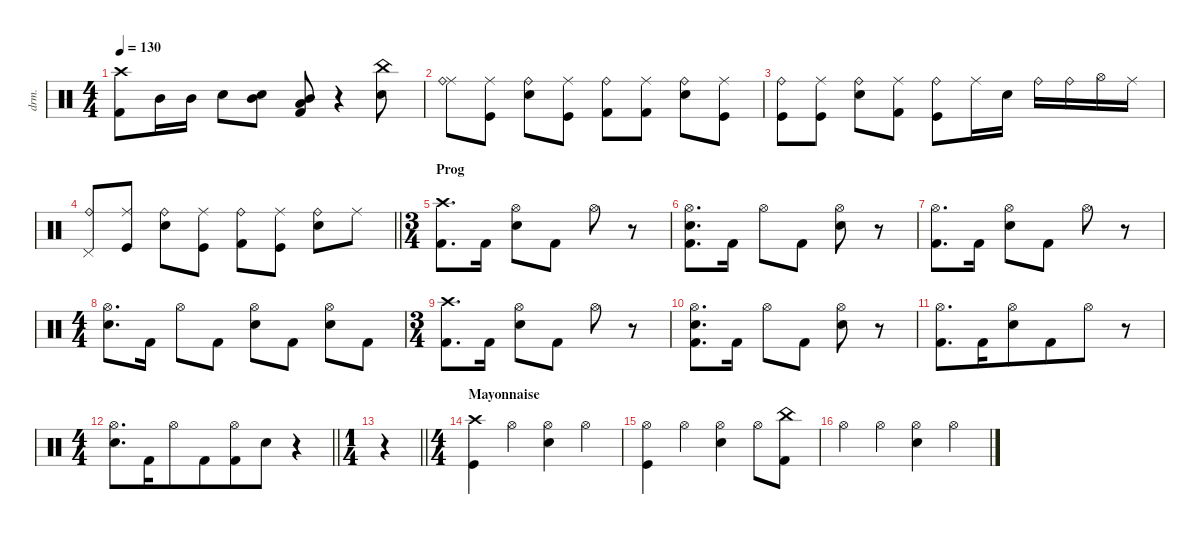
\defaultSystemsLayout 4
\hideDynamics
\bracketExtendMode nobrackets
\track ("Manouche" "drm.") {solo instrument percussion}
\staff {score}
\articulation defaults
\voice
\ts (4 4)
\tempo 130
\clef neutral
\ks c
("Crash high (hit)" "Kick (hit) 2").8{dy f beam Down} "Mid Tom (hit)".16{beam Down} "Mid Tom (hit)".16{beam Down} "Snare (hit) 2".8{dy ff beam Down} ("Mid Tom (hit)" "Snare (hit) 2").8{dy mf beam Down} ("Kick (hit) 2" "Mid Tom (hit)" "Low Floor Tom (hit)").8{dy ff beam Up} r.4{beam Down} ("China (hit)" "Snare (hit) 2").8{beam Down} |
("Ride (middle)" "Ride (bell)").8{dy f beam Down} ("Ride (middle)" "Kick (hit)").8{dy mp beam Down} ("Snare (hit) 2" "Ride (bell)").8{dy f beam Down} ("Kick (hit)" "Ride (middle)").8{beam Down} ("Ride (bell)" "Kick (hit) 2").8{beam Down} ("Ride (middle)" "Kick (hit) 2").8{dy mp beam Down} ("Ride (bell)" "Snare (hit) 2").8{dy f beam Down} ("Ride (middle)" "Kick (hit)").8{dy mp beam Down} |
("Kick (hit)" "Ride (bell)").8{dy f beam Down} ("Kick (hit)" "Ride (middle)").8{beam Down} ("Ride (bell)" "Snare (hit) 2").8{beam Down} ("Ride (middle)" "Kick (hit) 2").8{dy mp beam Down} ("Ride (bell)" "Kick (hit)").8{dy f beam Down} "Ride (middle)".16{dy mp beam Down} "Snare (hit) 2".16{dy f beam Down} "Ride (bell)".16{beam Down} "Ride (bell)".16{beam Down} "Hi-Hat (open)".16{beam Down} "Ride (middle)".16{beam Down} |
\barLineRight lightlight
("Ride (bell)" "Pedal Hi-Hat (hit)").8{beam Up} ("Kick (hit)" "Ride (middle)").8{beam Up} ("Snare (hit) 2" "Ride (bell)").8{beam Down} ("Ride (middle)" "Kick (hit)").8{dy mp beam Down} ("Ride (bell)" "Kick (hit) 2").8{dy f beam Down} ("Ride (middle)" "Kick (hit)").8{dy mp beam Down} ("Snare (hit) 2" "Ride (bell)").8{dy f beam Down} "Ride (middle)".8{dy mp beam Down} |
\ts (3 4)
\beaming (8 2 2 2)
\section ("" "Prog")
("Crash high (hit)" "Kick (hit) 2").8{d dy f beam Down} "Kick (hit) 2".16{beam Down} ("Hi-Hat (open)" "Snare (hit) 2").8{beam Down} "Kick (hit) 2".8{beam Down} "Hi-Hat (open)".8{beam Down} r.8{beam Down} |
("Hi-Hat (open)" "Snare (hit) 2" "Kick (hit) 2").8{d beam Down} "Kick (hit) 2".16{beam Down} "Hi-Hat (open)".8{beam Down} "Kick (hit) 2".8{beam Down} ("Hi-Hat (open)" "Snare (hit) 2").8{beam Down} r.8{beam Down} |
("Hi-Hat (open)" "Kick (hit) 2").8{d beam Down} "Kick (hit) 2".16{beam Down} ("Hi-Hat (open)" "Snare (hit) 2").8{beam Down} "Kick (hit) 2".8{beam Down} "Hi-Hat (open)".8{beam Down} r.8{beam Down} |
\ts (4 4)
\beaming (8 2 2 2 2)
("Hi-Hat (open)" "Snare (hit) 2").8{d beam Down} "Kick (hit) 2".16{beam Down} "Hi-Hat (open)".8{beam Down} "Kick (hit) 2".8{beam Down} ("Hi-Hat (open)" "Snare (hit) 2").8{beam Down} "Kick (hit) 2".8{beam Down} ("Hi-Hat (open)" "Snare (hit) 2").8{beam Down} "Kick (hit) 2".8{beam Down} |
\ts (3 4)
\beaming (8 2 2 2)
("Crash high (hit)" "Kick (hit) 2").8{d beam Down} "Kick (hit) 2".16{beam Down} ("Hi-Hat (open)" "Snare (hit) 2").8{beam Down} "Kick (hit) 2".8{beam Down} "Hi-Hat (open)".8{beam Down} r.8{beam Down} |
("Hi-Hat (open)" "Snare (hit) 2" "Kick (hit) 2").8{d beam Down} "Kick (hit) 2".16{beam Down} "Hi-Hat (open)".8{beam Down} "Kick (hit) 2".8{beam Down} ("Hi-Hat (open)" "Snare (hit) 2").8{beam Down} r.8{beam Down} |
\beaming (8 6 4)
("Hi-Hat (open)" "Kick (hit) 2").8{d beam Down} "Kick (hit) 2".16{beam Down} ("Hi-Hat (open)" "Snare (hit) 2").8{beam Down} "Kick (hit) 2".8{beam Down} "Hi-Hat (open)".8{beam Down} r.8{beam Down} |
\ts (4 4)
\beaming (8 6 4)
\barLineRight lightlight
("Hi-Hat (open)" "Snare (hit) 2").8{d beam Down} "Kick (hit) 2".16{beam Down} "Hi-Hat (open)".8{beam Down} "Kick (hit) 2".8{beam Down} ("Hi-Hat (open)" "Kick (hit) 2").8{beam Down} "Snare (hit) 2".8{beam Down} r.4{beam Down} |
\ts (1 4)
\beaming (8 2)
\barLineRight lightlight
r.4{beam Up} |
\ts (4 4)
\beaming (8 2 2 2 2)
\section ("" "Mayonnaise")
("Crash high (hit)" "Kick (hit)").4{beam Down} "Hi-Hat (open)".4{beam Down} ("Hi-Hat (open)" "Snare (hit) 2").4{beam Down} "Hi-Hat (open)".4{beam Down} |
("Hi-Hat (open)" "Kick (hit)").4{beam Down} "Hi-Hat (open)".4{beam Down} ("Hi-Hat (open)" "Snare (hit) 2").4{beam Down} "Hi-Hat (open)".8{beam Down} ("China (hit)" "Kick (hit) 2").8{beam Down} |
"Hi-Hat (open)".4{beam Down} "Hi-Hat (open)".4{beam Down} ("Hi-Hat (open)" "Snare (hit) 2").4{beam Down} "Hi-Hat (open)".4{beam Down}
\voice
\clef neutral
\ottava regular
\simile none
\ks c
|
|
|
\barLineRight lightlight
|
|
|
|
|
|
|
|
\barLineRight lightlight
|
\barLineRight lightlight
r.4{dy mf beam Down} |
|
|
